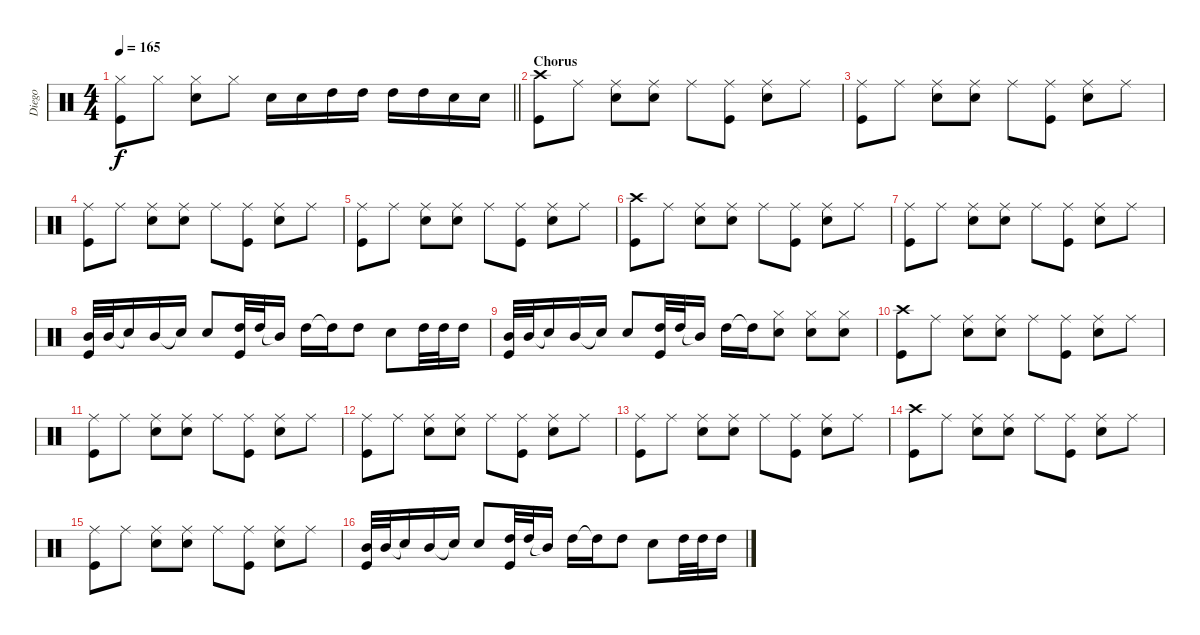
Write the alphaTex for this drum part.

\track ("Diego" "Diego") {instrument percussion}
\staff {score}
\articulation defaults
\ts (4 4)
\tempo 165
\clef neutral
\barLineRight lightlight
\ks c
("Hi-Hat (closed)" "Kick (hit)").8{dy f} "Hi-Hat (closed)".8 ("Hi-Hat (closed)" "Snare (hit) 2").8 "Hi-Hat (closed)".8 "Snare (hit) 2".16 "Snare (hit) 2".16 "High Tom (hit)".16 "High Tom (hit)".16 "High Tom (hit)".16 "High Tom (hit)".16 "Snare (hit) 2".16 "Snare (hit) 2".16 |
\section ("" "Chorus")
("Crash high (hit)" "Kick (hit)").8 "Ride (middle)".8 ("Ride (middle)" "Snare (hit) 2").8 ("Ride (middle)" "Snare (hit) 2").8 "Ride (middle)".8 ("Ride (middle)" "Kick (hit)").8 ("Ride (middle)" "Snare (hit) 2").8 "Ride (middle)".8 |
("Ride (middle)" "Kick (hit)").8 "Ride (middle)".8 ("Ride (middle)" "Snare (hit) 2").8 ("Ride (middle)" "Snare (hit) 2").8 "Ride (middle)".8 ("Ride (middle)" "Kick (hit)").8 ("Ride (middle)" "Snare (hit) 2").8 "Ride (middle)".8 |
("Ride (middle)" "Kick (hit)").8 "Ride (middle)".8 ("Ride (middle)" "Snare (hit) 2").8 ("Ride (middle)" "Snare (hit) 2").8 "Ride (middle)".8 ("Ride (middle)" "Kick (hit)").8 ("Ride (middle)" "Snare (hit) 2").8 "Ride (middle)".8 |
("Ride (middle)" "Kick (hit)").8 "Ride (middle)".8 ("Ride (middle)" "Snare (hit) 2").8 ("Ride (middle)" "Snare (hit) 2").8 "Ride (middle)".8 ("Ride (middle)" "Kick (hit)").8 ("Ride (middle)" "Snare (hit) 2").8 "Ride (middle)".8 |
("Crash high (hit)" "Kick (hit)").8 "Ride (middle)".8 ("Ride (middle)" "Snare (hit) 2").8 ("Ride (middle)" "Snare (hit) 2").8 "Ride (middle)".8 ("Ride (middle)" "Kick (hit)").8 ("Ride (middle)" "Snare (hit) 2").8 "Ride (middle)".8 |
("Ride (middle)" "Kick (hit)").8 "Ride (middle)".8 ("Ride (middle)" "Snare (hit) 2").8 ("Ride (middle)" "Snare (hit) 2").8 "Ride (middle)".8 ("Ride (middle)" "Kick (hit)").8 ("Ride (middle)" "Snare (hit) 2").8 "Ride (middle)".8 |
("Mid Tom (hit)" "Kick (hit)").32 "Mid Tom (hit)".32 "Snare (hit)"{t}.16 "Mid Tom (hit)".16 "Snare (hit) 2"{t}.16 "Snare (hit) 2".8 ("High Tom (hit)" "Kick (hit)").32 "High Tom (hit)".32 "Mid Tom (hit)"{t}.16 "High Tom (hit)".16 "High Tom (hit)"{t}.16 "High Tom (hit)".8 "Snare (hit) 2".8 "High Tom (hit)".32 "High Tom (hit)".32 "High Tom (hit)".16 |
("Mid Tom (hit)" "Kick (hit)").32 "Mid Tom (hit)".32 "Snare (hit)"{t}.16 "Mid Tom (hit)".16 "Snare (hit) 2"{t}.16 "Snare (hit) 2".8 ("High Tom (hit)" "Kick (hit)").32 "High Tom (hit)".32 "Mid Tom (hit)"{t}.16 "High Tom (hit)".16 "High Tom (hit)"{t}.16 ("Hi-Hat (closed)" "Snare (hit) 2").8 ("Hi-Hat (closed)" "Snare (hit) 2").8 ("Hi-Hat (closed)" "Snare (hit) 2").8 |
("Crash high (hit)" "Kick (hit)").8 "Ride (middle)".8 ("Ride (middle)" "Snare (hit) 2").8 ("Ride (middle)" "Snare (hit) 2").8 "Ride (middle)".8 ("Ride (middle)" "Kick (hit)").8 ("Ride (middle)" "Snare (hit) 2").8 "Ride (middle)".8 |
("Ride (middle)" "Kick (hit)").8 "Ride (middle)".8 ("Ride (middle)" "Snare (hit) 2").8 ("Ride (middle)" "Snare (hit) 2").8 "Ride (middle)".8 ("Ride (middle)" "Kick (hit)").8 ("Ride (middle)" "Snare (hit) 2").8 "Ride (middle)".8 |
("Ride (middle)" "Kick (hit)").8 "Ride (middle)".8 ("Ride (middle)" "Snare (hit) 2").8 ("Ride (middle)" "Snare (hit) 2").8 "Ride (middle)".8 ("Ride (middle)" "Kick (hit)").8 ("Ride (middle)" "Snare (hit) 2").8 "Ride (middle)".8 |
("Ride (middle)" "Kick (hit)").8 "Ride (middle)".8 ("Ride (middle)" "Snare (hit) 2").8 ("Ride (middle)" "Snare (hit) 2").8 "Ride (middle)".8 ("Ride (middle)" "Kick (hit)").8 ("Ride (middle)" "Snare (hit) 2").8 "Ride (middle)".8 |
("Crash high (hit)" "Kick (hit)").8 "Ride (middle)".8 ("Ride (middle)" "Snare (hit) 2").8 ("Ride (middle)" "Snare (hit) 2").8 "Ride (middle)".8 ("Ride (middle)" "Kick (hit)").8 ("Ride (middle)" "Snare (hit) 2").8 "Ride (middle)".8 |
("Ride (middle)" "Kick (hit)").8 "Ride (middle)".8 ("Ride (middle)" "Snare (hit) 2").8 ("Ride (middle)" "Snare (hit) 2").8 "Ride (middle)".8 ("Ride (middle)" "Kick (hit)").8 ("Ride (middle)" "Snare (hit) 2").8 "Ride (middle)".8 |
("Mid Tom (hit)" "Kick (hit)").32 "Mid Tom (hit)".32 "Snare (hit)"{t}.16 "Mid Tom (hit)".16 "Snare (hit) 2"{t}.16 "Snare (hit) 2".8 ("High Tom (hit)" "Kick (hit)").32 "High Tom (hit)".32 "Mid Tom (hit)"{t}.16 "High Tom (hit)".16 "High Tom (hit)"{t}.16 "High Tom (hit)".8 "Snare (hit) 2".8 "High Tom (hit)".32 "High Tom (hit)".32 "High Tom (hit)".16
